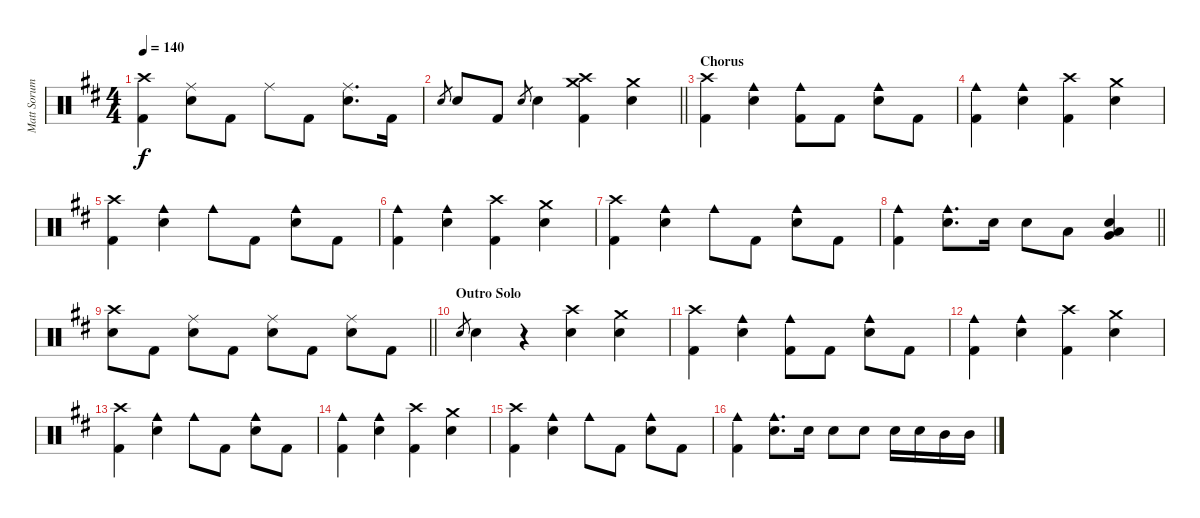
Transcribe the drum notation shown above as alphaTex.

\track ("Matt Sorum - Drums" "Matt Sorum") {instrument percussion}
\staff {score}
\articulation defaults
\ts (4 4)
\tempo 140
\clef neutral
\ks d
("Crash high (hit)" "Kick (hit) 2").4{dy f} ("Ride (middle)" "Snare (hit) 2").8 "Kick (hit) 2".8 "Ride (middle)".8 "Kick (hit) 2".8 ("Ride (middle)" "Snare (hit) 2").8{d} "Kick (hit) 2".16 |
\barLineRight lightlight "Snare (hit) 2".8{gr} "Snare (hit) 2".8 "Kick (hit) 2".8 "Snare (hit) 2".8{gr} "Snare (hit) 2".4
("Crash medium (hit)" "Crash high (hit)" "Kick (hit) 2").4 ("Crash medium (hit)" "Snare (hit) 2").4 |
\section ("" "Chorus")
("Crash high (hit)" "Kick (hit) 2").4 ("Cowbell medium (hit)" "Snare (hit) 2").4 ("Cowbell medium (hit)" "Kick (hit) 2").8 "Kick (hit) 2".8 ("Cowbell medium (hit)" "Snare (hit) 2").8 "Kick (hit) 2".8 |
("Cowbell medium (hit)" "Kick (hit) 2").4 ("Cowbell medium (hit)" "Snare (hit) 2").4 ("Crash high (hit)" "Kick (hit) 2").4 ("Crash medium (hit)" "Snare (hit) 2").4 |
("Crash high (hit)" "Kick (hit) 2").4 ("Cowbell medium (hit)" "Snare (hit) 2").4 "Cowbell medium (hit)".8 "Kick (hit) 2".8 ("Cowbell medium (hit)" "Snare (hit) 2").8 "Kick (hit) 2".8 |
("Cowbell medium (hit)" "Kick (hit) 2").4 ("Cowbell medium (hit)" "Snare (hit) 2").4 ("Crash high (hit)" "Kick (hit) 2").4 ("Crash medium (hit)" "Snare (hit) 2").4 |
("Crash high (hit)" "Kick (hit) 2").4 ("Cowbell medium (hit)" "Snare (hit) 2").4 "Cowbell medium (hit)".8 "Kick (hit) 2".8 ("Cowbell medium (hit)" "Snare (hit) 2").8 "Kick (hit) 2".8 |
\barLineRight lightlight
("Cowbell medium (hit)" "Kick (hit) 2").4 ("Cowbell medium (hit)" "Snare (hit) 2").8{d} "Snare (hit) 2".16 "Snare (hit) 2".8 "Low Tom (hit)".8 ("Very Low Tom (hit)" "Low Tom (hit)" "Snare (hit) 2").4 |
\barLineRight lightlight
("Crash high (hit)" "Snare (hit) 2").8 "Kick (hit) 2".8 ("Ride (middle)" "Snare (hit) 2").8 "Kick (hit) 2".8 ("Ride (middle)" "Snare (hit) 2").8 "Kick (hit) 2".8 ("Ride (middle)" "Snare (hit) 2").8 "Kick (hit) 2".8 |
\section ("" "Outro Solo")
"Snare (hit) 2".8{gr} "Snare (hit) 2".4 r.4 ("Crash high (hit)" "Snare (hit) 2").4 ("Crash medium (hit)" "Snare (hit) 2").4 |
("Crash high (hit)" "Kick (hit) 2").4 ("Cowbell medium (hit)" "Snare (hit) 2").4 ("Cowbell medium (hit)" "Kick (hit) 2").8 "Kick (hit) 2".8 ("Cowbell medium (hit)" "Snare (hit) 2").8 "Kick (hit) 2".8 |
("Cowbell medium (hit)" "Kick (hit) 2").4 ("Cowbell medium (hit)" "Snare (hit) 2").4 ("Crash high (hit)" "Kick (hit) 2").4 ("Crash medium (hit)" "Snare (hit) 2").4 |
("Crash high (hit)" "Kick (hit) 2").4 ("Cowbell medium (hit)" "Snare (hit) 2").4 "Cowbell medium (hit)".8 "Kick (hit) 2".8 ("Cowbell medium (hit)" "Snare (hit) 2").8 "Kick (hit) 2".8 |
("Cowbell medium (hit)" "Kick (hit) 2").4 ("Cowbell medium (hit)" "Snare (hit) 2").4 ("Crash high (hit)" "Kick (hit) 2").4 ("Crash medium (hit)" "Snare (hit) 2").4 |
("Crash high (hit)" "Kick (hit) 2").4 ("Cowbell medium (hit)" "Snare (hit) 2").4 "Cowbell medium (hit)".8 "Kick (hit) 2".8 ("Cowbell medium (hit)" "Snare (hit) 2").8 "Kick (hit) 2".8 |
("Cowbell medium (hit)" "Kick (hit) 2").4 ("Cowbell medium (hit)" "Snare (hit) 2").8{d} "Snare (hit) 2".16 "Snare (hit) 2".8 "Snare (hit) 2".8 "Snare (hit) 2".16 "Snare (hit) 2".16 "Mid Tom (hit)".16 "Mid Tom (hit)".16
